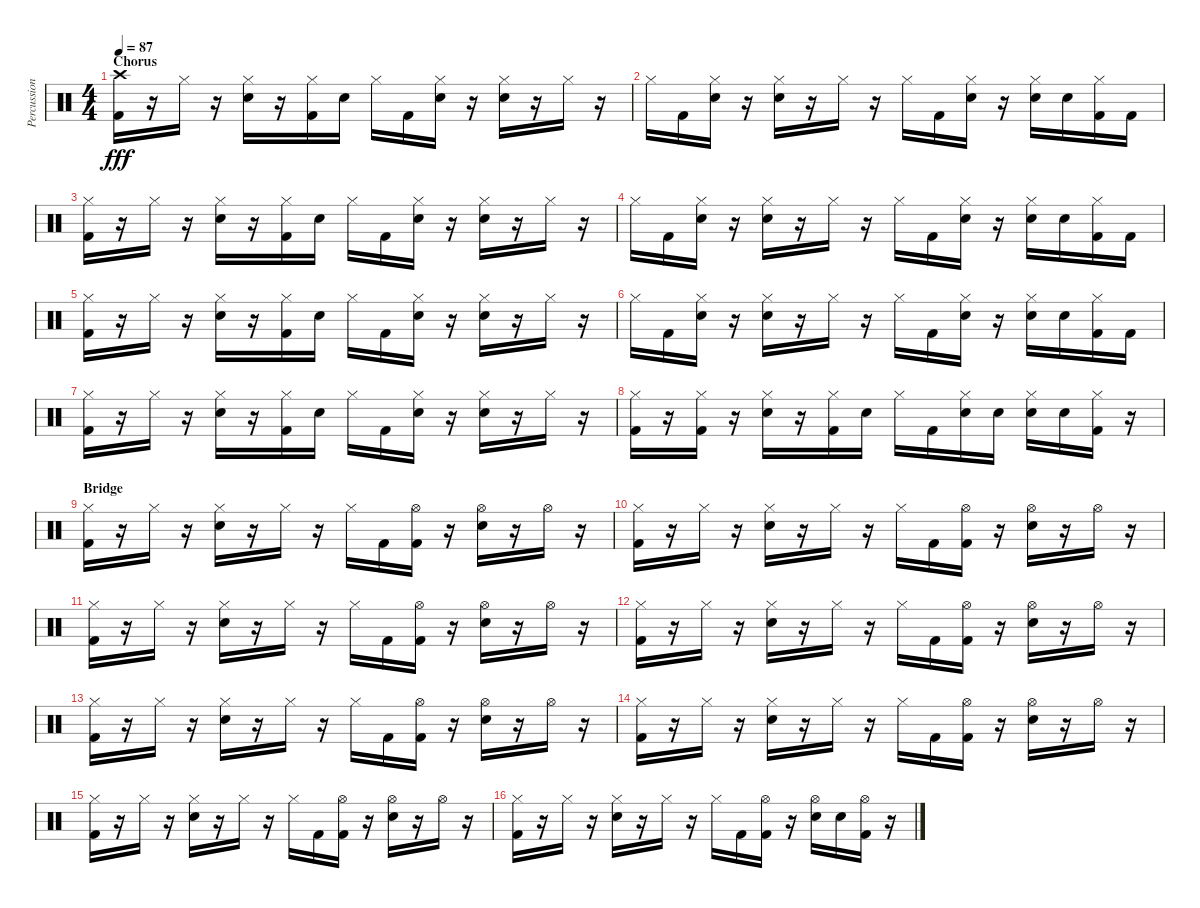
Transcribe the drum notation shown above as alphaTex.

\track ("Percussion" "Percussion") {instrument percussion}
\staff {score}
\articulation defaults
\ts (4 4)
\section ("" "Chorus")
\tempo 87
\clef neutral
\ks c
("Crash high (hit)" "Kick (hit) 2").16{dy fff} r.16 "Hi-Hat (closed)".16 r.16 ("Hi-Hat (closed)" "Electric Snare (hit)").16 r.16 ("Hi-Hat (closed)" "Kick (hit) 2").16 "Electric Snare (hit)".16 "Hi-Hat (closed)".16 "Kick (hit) 2".16 ("Hi-Hat (closed)" "Electric Snare (hit)").16 r.16 ("Hi-Hat (closed)" "Electric Snare (hit)").16 r.16 "Hi-Hat (closed)".16 r.16 |
"Hi-Hat (closed)".16 "Kick (hit) 2".16 ("Hi-Hat (closed)" "Electric Snare (hit)").16 r.16 ("Hi-Hat (closed)" "Electric Snare (hit)").16 r.16 "Hi-Hat (closed)".16 r.16 "Hi-Hat (closed)".16 "Kick (hit) 2".16 ("Hi-Hat (closed)" "Electric Snare (hit)").16 r.16 ("Hi-Hat (closed)" "Electric Snare (hit)").16 "Electric Snare (hit)".16 ("Hi-Hat (closed)" "Kick (hit) 2").16 "Kick (hit) 2".16 |
("Hi-Hat (closed)" "Kick (hit) 2").16 r.16 "Hi-Hat (closed)".16 r.16 ("Hi-Hat (closed)" "Electric Snare (hit)").16 r.16 ("Hi-Hat (closed)" "Kick (hit) 2").16 "Electric Snare (hit)".16 "Hi-Hat (closed)".16 "Kick (hit) 2".16 ("Hi-Hat (closed)" "Electric Snare (hit)").16 r.16 ("Hi-Hat (closed)" "Electric Snare (hit)").16 r.16 "Hi-Hat (closed)".16 r.16 |
"Hi-Hat (closed)".16 "Kick (hit) 2".16 ("Hi-Hat (closed)" "Electric Snare (hit)").16 r.16 ("Hi-Hat (closed)" "Electric Snare (hit)").16 r.16 "Hi-Hat (closed)".16 r.16 "Hi-Hat (closed)".16 "Kick (hit) 2".16 ("Hi-Hat (closed)" "Electric Snare (hit)").16 r.16 ("Hi-Hat (closed)" "Electric Snare (hit)").16 "Electric Snare (hit)".16 ("Hi-Hat (closed)" "Kick (hit) 2").16 "Kick (hit) 2".16 |
("Hi-Hat (closed)" "Kick (hit) 2").16 r.16 "Hi-Hat (closed)".16 r.16 ("Hi-Hat (closed)" "Electric Snare (hit)").16 r.16 ("Hi-Hat (closed)" "Kick (hit) 2").16 "Electric Snare (hit)".16 "Hi-Hat (closed)".16 "Kick (hit) 2".16 ("Hi-Hat (closed)" "Electric Snare (hit)").16 r.16 ("Hi-Hat (closed)" "Electric Snare (hit)").16 r.16 "Hi-Hat (closed)".16 r.16 |
"Hi-Hat (closed)".16 "Kick (hit) 2".16 ("Hi-Hat (closed)" "Electric Snare (hit)").16 r.16 ("Hi-Hat (closed)" "Electric Snare (hit)").16 r.16 "Hi-Hat (closed)".16 r.16 "Hi-Hat (closed)".16 "Kick (hit) 2".16 ("Hi-Hat (closed)" "Electric Snare (hit)").16 r.16 ("Hi-Hat (closed)" "Electric Snare (hit)").16 "Electric Snare (hit)".16 ("Hi-Hat (closed)" "Kick (hit) 2").16 "Kick (hit) 2".16 |
("Hi-Hat (closed)" "Kick (hit) 2").16 r.16 "Hi-Hat (closed)".16 r.16 ("Hi-Hat (closed)" "Electric Snare (hit)").16 r.16 ("Hi-Hat (closed)" "Kick (hit) 2").16 "Electric Snare (hit)".16 "Hi-Hat (closed)".16 "Kick (hit) 2".16 ("Hi-Hat (closed)" "Electric Snare (hit)").16 r.16 ("Hi-Hat (closed)" "Electric Snare (hit)").16 r.16 "Hi-Hat (closed)".16 r.16 |
("Hi-Hat (closed)" "Kick (hit) 2").16 r.16 ("Hi-Hat (closed)" "Kick (hit) 2").16 r.16 ("Hi-Hat (closed)" "Electric Snare (hit)").16 r.16 ("Hi-Hat (closed)" "Kick (hit) 2").16 "Electric Snare (hit)".16 "Hi-Hat (closed)".16 "Kick (hit) 2".16 ("Hi-Hat (closed)" "Electric Snare (hit)").16 "Electric Snare (hit)".16 ("Hi-Hat (closed)" "Electric Snare (hit)").16 "Electric Snare (hit)".16 ("Hi-Hat (closed)" "Kick (hit) 2").16 r.16 |
\section ("" "Bridge")
("Hi-Hat (closed)" "Kick (hit) 2").16 r.16 "Hi-Hat (closed)".16 r.16 ("Hi-Hat (closed)" "Electric Snare (hit)").16 r.16 "Hi-Hat (closed)".16 r.16 "Hi-Hat (closed)".16 "Kick (hit) 2".16 ("Hi-Hat (open)" "Kick (hit) 2").16 r.16 ("Hi-Hat (open)" "Electric Snare (hit)").16 r.16 "Hi-Hat (open)".16 r.16 |
("Hi-Hat (closed)" "Kick (hit) 2").16 r.16 "Hi-Hat (closed)".16 r.16 ("Hi-Hat (closed)" "Electric Snare (hit)").16 r.16 "Hi-Hat (closed)".16 r.16 "Hi-Hat (closed)".16 "Kick (hit) 2".16 ("Hi-Hat (open)" "Kick (hit) 2").16 r.16 ("Hi-Hat (open)" "Electric Snare (hit)").16 r.16 "Hi-Hat (open)".16 r.16 |
("Hi-Hat (closed)" "Kick (hit) 2").16 r.16 "Hi-Hat (closed)".16 r.16 ("Hi-Hat (closed)" "Electric Snare (hit)").16 r.16 "Hi-Hat (closed)".16 r.16 "Hi-Hat (closed)".16 "Kick (hit) 2".16 ("Hi-Hat (open)" "Kick (hit) 2").16 r.16 ("Hi-Hat (open)" "Electric Snare (hit)").16 r.16 "Hi-Hat (open)".16 r.16 |
("Hi-Hat (closed)" "Kick (hit) 2").16 r.16 "Hi-Hat (closed)".16 r.16 ("Hi-Hat (closed)" "Electric Snare (hit)").16 r.16 "Hi-Hat (closed)".16 r.16 "Hi-Hat (closed)".16 "Kick (hit) 2".16 ("Hi-Hat (open)" "Kick (hit) 2").16 r.16 ("Hi-Hat (open)" "Electric Snare (hit)").16 r.16 "Hi-Hat (open)".16 r.16 |
("Hi-Hat (closed)" "Kick (hit) 2").16 r.16 "Hi-Hat (closed)".16 r.16 ("Hi-Hat (closed)" "Electric Snare (hit)").16 r.16 "Hi-Hat (closed)".16 r.16 "Hi-Hat (closed)".16 "Kick (hit) 2".16 ("Hi-Hat (open)" "Kick (hit) 2").16 r.16 ("Hi-Hat (open)" "Electric Snare (hit)").16 r.16 "Hi-Hat (open)".16 r.16 |
("Hi-Hat (closed)" "Kick (hit) 2").16 r.16 "Hi-Hat (closed)".16 r.16 ("Hi-Hat (closed)" "Electric Snare (hit)").16 r.16 "Hi-Hat (closed)".16 r.16 "Hi-Hat (closed)".16 "Kick (hit) 2".16 ("Hi-Hat (open)" "Kick (hit) 2").16 r.16 ("Hi-Hat (open)" "Electric Snare (hit)").16 r.16 "Hi-Hat (open)".16 r.16 |
("Hi-Hat (closed)" "Kick (hit) 2").16 r.16 "Hi-Hat (closed)".16 r.16 ("Hi-Hat (closed)" "Electric Snare (hit)").16 r.16 "Hi-Hat (closed)".16 r.16 "Hi-Hat (closed)".16 "Kick (hit) 2".16 ("Hi-Hat (open)" "Kick (hit) 2").16 r.16 ("Hi-Hat (open)" "Electric Snare (hit)").16 r.16 "Hi-Hat (open)".16 r.16 |
("Hi-Hat (closed)" "Kick (hit) 2").16 r.16 "Hi-Hat (closed)".16 r.16 ("Hi-Hat (closed)" "Electric Snare (hit)").16 r.16 "Hi-Hat (closed)".16 r.16 "Hi-Hat (closed)".16 "Kick (hit) 2".16 ("Hi-Hat (open)" "Kick (hit) 2").16 r.16 ("Hi-Hat (open)" "Electric Snare (hit)").16 "Electric Snare (hit)".16 ("Hi-Hat (open)" "Kick (hit) 2").16 r.16
